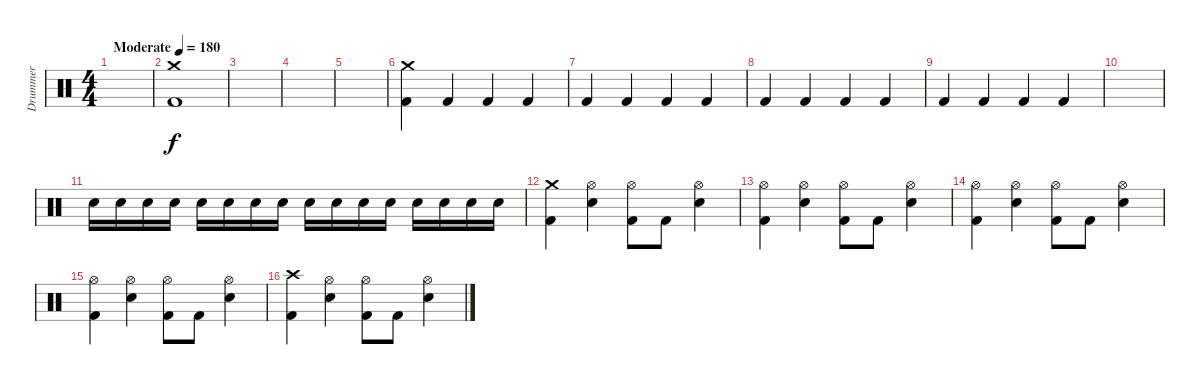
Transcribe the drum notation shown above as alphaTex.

\track ("Drummer" "Drummer") {instrument percussion}
\staff {score}
\articulation defaults
\ts (4 4)
\tempo (180 "Moderate")
\clef neutral
\ks c
|
("Crash medium (hit)" "Kick (hit) 2").1 |
|
|
|
("Crash medium (hit)" "Kick (hit) 2").4 "Kick (hit) 2".4 "Kick (hit) 2".4 "Kick (hit) 2".4 |
"Kick (hit) 2".4 "Kick (hit) 2".4 "Kick (hit) 2".4 "Kick (hit) 2".4 |
"Kick (hit) 2".4 "Kick (hit) 2".4 "Kick (hit) 2".4 "Kick (hit) 2".4 |
"Kick (hit) 2".4 "Kick (hit) 2".4 "Kick (hit) 2".4 "Kick (hit) 2".4 |
|
"Electric Snare (hit)".16 "Electric Snare (hit)".16 "Electric Snare (hit)".16 "Electric Snare (hit)".16 "Electric Snare (hit)".16 "Electric Snare (hit)".16 "Electric Snare (hit)".16 "Electric Snare (hit)".16 "Electric Snare (hit)".16 "Electric Snare (hit)".16 "Electric Snare (hit)".16 "Electric Snare (hit)".16 "Electric Snare (hit)".16 "Electric Snare (hit)".16 "Electric Snare (hit)".16 "Electric Snare (hit)".16 |
("Crash medium (hit)" "Kick (hit) 2").4 ("Hi-Hat (open)" "Electric Snare (hit)").4 ("Hi-Hat (open)" "Kick (hit) 2").8 "Kick (hit) 2".8 ("Hi-Hat (open)" "Electric Snare (hit)").4 |
("Hi-Hat (open)" "Kick (hit) 2").4 ("Hi-Hat (open)" "Electric Snare (hit)").4 ("Hi-Hat (open)" "Kick (hit) 2").8 "Kick (hit) 2".8 ("Hi-Hat (open)" "Electric Snare (hit)").4 |
("Hi-Hat (open)" "Kick (hit) 2").4 ("Hi-Hat (open)" "Electric Snare (hit)").4 ("Hi-Hat (open)" "Kick (hit) 2").8 "Kick (hit) 2".8 ("Hi-Hat (open)" "Electric Snare (hit)").4 |
("Hi-Hat (open)" "Kick (hit) 2").4 ("Hi-Hat (open)" "Electric Snare (hit)").4 ("Hi-Hat (open)" "Kick (hit) 2").8 "Kick (hit) 2".8 ("Hi-Hat (open)" "Electric Snare (hit)").4 |
("Crash high (hit)" "Kick (hit) 2").4 ("Hi-Hat (open)" "Electric Snare (hit)").4 ("Hi-Hat (open)" "Kick (hit) 2").8 "Kick (hit) 2".8 ("Hi-Hat (open)" "Electric Snare (hit)").4
